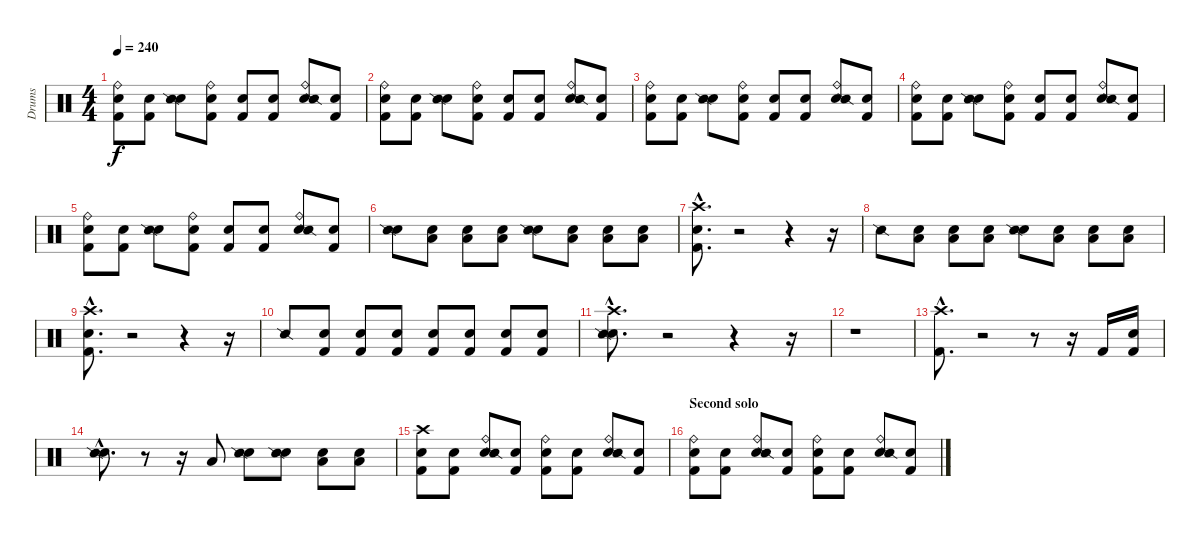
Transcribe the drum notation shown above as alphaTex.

\track ("Drums" "Drums") {instrument percussion}
\staff {score}
\articulation defaults
\ts (4 4)
\tempo 240
\clef neutral
\ks c
("Snare (hit)" "Kick (hit) 2" "Ride (bell)").8{dy f} ("Snare (hit)" "Kick (hit) 2").8 ("Snare (hit)" "Snare (side stick) 2").8 ("Snare (hit)" "Kick (hit) 2" "Ride (bell)").8 ("Snare (hit)" "Kick (hit) 2").8 ("Snare (hit)" "Kick (hit) 2").8 ("Snare (hit)" "Ride (bell)" "Snare (side stick) 2").8 ("Snare (hit)" "Kick (hit) 2").8 |
("Snare (hit)" "Kick (hit) 2" "Ride (bell)").8 ("Snare (hit)" "Kick (hit) 2").8 ("Snare (hit)" "Snare (side stick) 2").8 ("Snare (hit)" "Kick (hit) 2" "Ride (bell)").8 ("Snare (hit)" "Kick (hit) 2").8 ("Snare (hit)" "Kick (hit) 2").8 ("Snare (hit)" "Ride (bell)" "Snare (side stick) 2").8 ("Snare (hit)" "Kick (hit) 2").8 |
("Snare (hit)" "Kick (hit) 2" "Ride (bell)").8 ("Snare (hit)" "Kick (hit) 2").8 ("Snare (hit)" "Snare (side stick) 2").8 ("Snare (hit)" "Kick (hit) 2" "Ride (bell)").8 ("Snare (hit)" "Kick (hit) 2").8 ("Snare (hit)" "Kick (hit) 2").8 ("Snare (hit)" "Ride (bell)" "Snare (side stick) 2").8 ("Snare (hit)" "Kick (hit) 2").8 |
("Snare (hit)" "Kick (hit) 2" "Ride (bell)").8 ("Snare (hit)" "Kick (hit) 2").8 ("Snare (hit)" "Snare (side stick) 2").8 ("Snare (hit)" "Kick (hit) 2" "Ride (bell)").8 ("Snare (hit)" "Kick (hit) 2").8 ("Snare (hit)" "Kick (hit) 2").8 ("Snare (hit)" "Ride (bell)" "Snare (side stick) 2").8 ("Snare (hit)" "Kick (hit) 2").8 |
("Snare (hit)" "Kick (hit) 2" "Ride (bell)").8 ("Snare (hit)" "Kick (hit) 2").8 ("Snare (hit)" "Snare (side stick) 2").8 ("Snare (hit)" "Kick (hit) 2" "Ride (bell)").8 ("Snare (hit)" "Kick (hit) 2").8 ("Snare (hit)" "Kick (hit) 2").8 ("Snare (hit)" "Ride (bell)" "Snare (side stick) 2").8 ("Snare (hit)" "Kick (hit) 2").8 |
("Snare (hit)" "Snare (side stick) 2").8 ("Snare (hit)" "Low Tom (hit)").8 ("Snare (hit)" "Low Tom (hit)").8 ("Snare (hit)" "Low Tom (hit)").8 ("Snare (hit)" "Snare (side stick) 2").8 ("Snare (hit)" "Low Tom (hit)").8 ("Snare (hit)" "Low Tom (hit)").8 ("Snare (hit)" "Low Tom (hit)").8 |
("Snare (hit)"{hac} "Kick (hit) 2"{hac} "Crash high (hit)"{hac}).8{d} r.2 r.4 r.16 |
"Snare (side stick) 2".8 ("Snare (hit)" "Low Tom (hit)").8 ("Snare (hit)" "Low Tom (hit)").8 ("Snare (hit)" "Low Tom (hit)").8 ("Snare (hit)" "Snare (side stick) 2").8 ("Snare (hit)" "Low Tom (hit)").8 ("Snare (hit)" "Low Tom (hit)").8 ("Snare (hit)" "Low Tom (hit)").8 |
("Snare (hit)"{hac} "Kick (hit) 2"{hac} "Crash high (hit)"{hac}).8{d} r.2 r.4 r.16 |
"Snare (side stick) 2".8 ("Snare (hit)" "Kick (hit) 2").8 ("Snare (hit)" "Kick (hit) 2").8 ("Snare (hit)" "Kick (hit) 2").8 ("Snare (hit)" "Kick (hit) 2").8 ("Snare (hit)" "Kick (hit) 2").8 ("Snare (hit)" "Kick (hit) 2").8 ("Snare (hit)" "Kick (hit) 2").8 |
("Snare (hit)"{hac} "Snare (side stick) 2"{hac} "Crash high (hit)"{hac}).8{d} r.2 r.4 r.16 |
r.1 |
("Kick (hit) 2"{hac} "Crash high (hit)"{hac}).8{d} r.2 r.8 r.16 "Kick (hit) 2".16 ("Snare (hit)" "Kick (hit) 2").16 |
("Snare (hit)"{hac} "Snare (side stick) 2"{hac}).8{d} r.8 r.16 "Low Tom (hit)".8 ("Snare (hit)" "Snare (side stick) 2").8 ("Snare (hit)" "Snare (side stick) 2").8 ("Snare (hit)" "Low Tom (hit)").8 ("Snare (hit)" "Low Tom (hit)").8 |
("Snare (hit)" "Kick (hit) 2" "Crash high (hit)").8 ("Snare (hit)" "Kick (hit) 2").8 ("Snare (hit)" "Ride (bell)" "Snare (side stick) 2").8 ("Snare (hit)" "Kick (hit) 2").8 ("Snare (hit)" "Kick (hit) 2" "Ride (bell)").8 ("Snare (hit)" "Kick (hit) 2").8 ("Snare (hit)" "Ride (bell)" "Snare (side stick) 2").8 ("Snare (hit)" "Kick (hit) 2").8 |
\section ("" "Second solo")
("Snare (hit)" "Kick (hit) 2" "Ride (bell)").8 ("Snare (hit)" "Kick (hit) 2").8 ("Snare (hit)" "Ride (bell)" "Snare (side stick) 2").8 ("Snare (hit)" "Kick (hit) 2").8 ("Snare (hit)" "Kick (hit) 2" "Ride (bell)").8 ("Snare (hit)" "Kick (hit) 2").8 ("Snare (hit)" "Ride (bell)" "Snare (side stick) 2").8 ("Snare (hit)" "Kick (hit) 2").8
